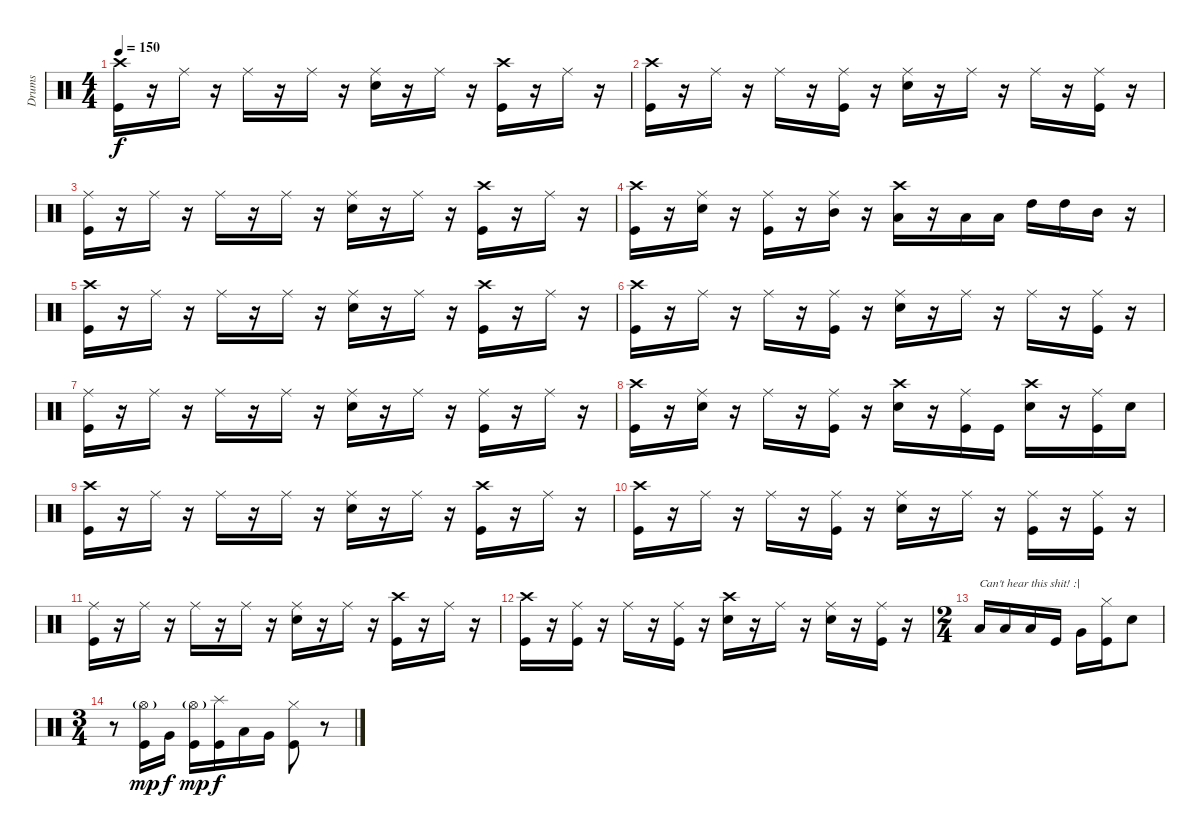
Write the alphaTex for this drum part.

\track ("Drums" "Drums") {instrument percussion}
\staff {score}
\articulation defaults
\ts (4 4)
\tempo 150
\clef neutral
\ks c
("Crash high (hit)" "Kick (hit)").16{dy f} r.16 "Ride (middle)".16 r.16 "Ride (middle)".16 r.16 "Ride (middle)".16 r.16 ("Ride (middle)" "Electric Snare (hit)").16 r.16 "Ride (middle)".16 r.16 ("Crash high (hit)" "Kick (hit)").16 r.16 "Ride (middle)".16 r.16 |
("Crash high (hit)" "Kick (hit)").16 r.16 "Ride (middle)".16 r.16 "Ride (middle)".16 r.16 ("Ride (middle)" "Kick (hit)").16 r.16 ("Ride (middle)" "Electric Snare (hit)").16 r.16 "Ride (middle)".16 r.16 "Ride (middle)".16 r.16 ("Ride (middle)" "Kick (hit)").16 r.16 |
("Ride (middle)" "Kick (hit)").16 r.16 "Ride (middle)".16 r.16 "Ride (middle)".16 r.16 "Ride (middle)".16 r.16 ("Ride (middle)" "Electric Snare (hit)").16 r.16 "Ride (middle)".16 r.16 ("Crash high (hit)" "Kick (hit)").16 r.16 "Ride (middle)".16 r.16 |
("Crash high (hit)" "Kick (hit)").16 r.16 ("Ride (middle)" "Electric Snare (hit)").16 r.16 ("Ride (middle)" "Kick (hit)").16 r.16 ("Ride (middle)" "Mid Tom (hit)").16 r.16 ("Crash high (hit)" "Low Tom (hit)").16 r.16 "Low Tom (hit)".16 "Low Tom (hit)".16 "High Tom (hit)".16 "High Tom (hit)".16 "Mid Tom (hit)".16 r.16 |
("Crash high (hit)" "Kick (hit)").16 r.16 "Ride (middle)".16 r.16 "Ride (middle)".16 r.16 "Ride (middle)".16 r.16 ("Ride (middle)" "Electric Snare (hit)").16 r.16 "Ride (middle)".16 r.16 ("Crash high (hit)" "Kick (hit)").16 r.16 "Ride (middle)".16 r.16 |
("Crash high (hit)" "Kick (hit)").16 r.16 "Ride (middle)".16 r.16 "Ride (middle)".16 r.16 ("Ride (middle)" "Kick (hit)").16 r.16 ("Ride (middle)" "Electric Snare (hit)").16 r.16 "Ride (middle)".16 r.16 "Ride (middle)".16 r.16 ("Ride (middle)" "Kick (hit)").16 r.16 |
("Ride (middle)" "Kick (hit)").16 r.16 "Ride (middle)".16 r.16 "Ride (middle)".16 r.16 "Ride (middle)".16 r.16 ("Ride (middle)" "Electric Snare (hit)").16 r.16 "Ride (middle)".16 r.16 ("Ride (middle)" "Kick (hit)").16 r.16 "Ride (middle)".16 r.16 |
("Crash high (hit)" "Kick (hit)").16 r.16 ("Ride (middle)" "Electric Snare (hit)").16 r.16 "Ride (middle)".16 r.16 ("Ride (middle)" "Kick (hit)").16 r.16 ("Crash high (hit)" "Electric Snare (hit)").16 r.16 ("Ride (middle)" "Kick (hit)").16 "Kick (hit)".16 ("Crash high (hit)" "Electric Snare (hit)").16 r.16 ("Ride (middle)" "Kick (hit)").16 "Electric Snare (hit)".16 |
("Crash high (hit)" "Kick (hit)").16 r.16 "Ride (middle)".16 r.16 "Ride (middle)".16 r.16 "Ride (middle)".16 r.16 ("Ride (middle)" "Electric Snare (hit)").16 r.16 "Ride (middle)".16 r.16 ("Crash high (hit)" "Kick (hit)").16 r.16 "Ride (middle)".16 r.16 |
("Crash high (hit)" "Kick (hit)").16 r.16 "Ride (middle)".16 r.16 "Ride (middle)".16 r.16 ("Ride (middle)" "Kick (hit)").16 r.16 ("Ride (middle)" "Electric Snare (hit)").16 r.16 "Ride (middle)".16 r.16 ("Ride (middle)" "Kick (hit)").16 r.16 ("Ride (middle)" "Kick (hit)").16 r.16 |
("Ride (middle)" "Kick (hit)").16 r.16 "Ride (middle)".16 r.16 "Ride (middle)".16 r.16 "Ride (middle)".16 r.16 ("Ride (middle)" "Electric Snare (hit)").16 r.16 "Ride (middle)".16 r.16 ("Crash high (hit)" "Kick (hit)").16 r.16 "Ride (middle)".16 r.16 |
("Crash high (hit)" "Kick (hit)").16 r.16 ("Ride (middle)" "Kick (hit)").16 r.16 "Ride (middle)".16 r.16 ("Ride (middle)" "Kick (hit)").16 r.16 ("Crash high (hit)" "Electric Snare (hit)").16 r.16 "Ride (middle)".16 r.16 ("Ride (middle)" "Electric Snare (hit)").16 r.16 ("Ride (middle)" "Kick (hit)").16 r.16 |
\ts (2 4)
"Low Floor Tom (hit)".16{txt "Can't hear this shit! :|"} "Low Tom (hit)".16 "Low Floor Tom (hit)".16 "Kick (hit)".16 "Very Low Tom (hit)".16 ("Hi-Hat (closed)" "Kick (hit)").16 "Electric Snare (hit)".8 |
\ts (3 4)
r.8 ("Hi-Hat (open)"{g} "Kick (hit)").16{dy mp} "Very Low Tom (hit)".16{dy f} ("Hi-Hat (open)"{g} "Kick (hit)").16{dy mp} ("Splash (hit)" "Kick (hit)").16{dy f} "Low Tom (hit)".16 "Very Low Tom (hit)".16 ("Hi-Hat (closed)" "Kick (hit)").8 r.8
